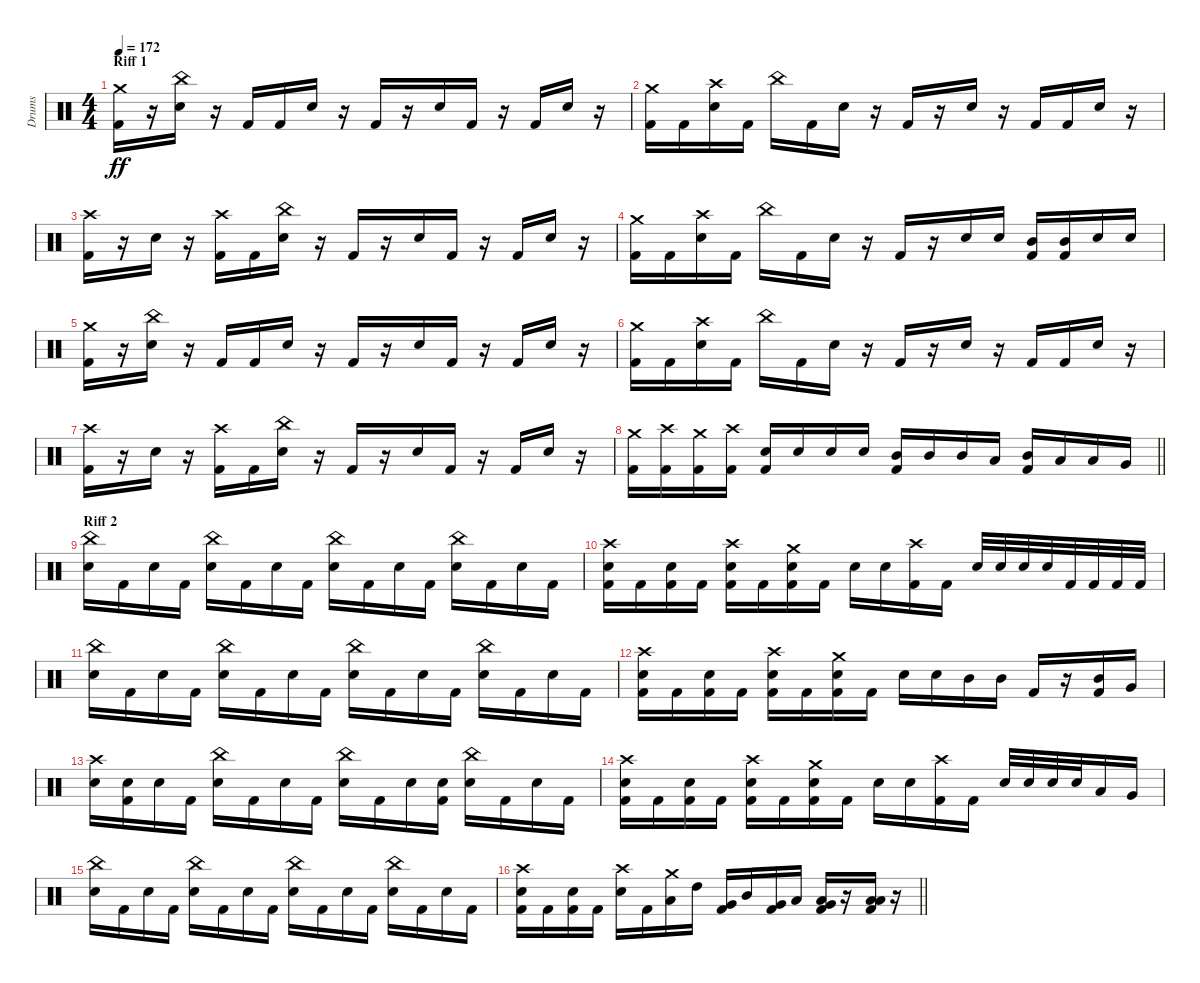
\track ("Drums" "Drums") {instrument percussion}
\staff {score}
\articulation defaults
\ts (4 4)
\section ("" "Riff 1")
\tempo 172
\clef neutral
\ks c
("Crash medium (hit)" "Kick (hit) 2").16{dy ff} r.16 ("China (hit)" "Snare (hit) 2").16 r.16 "Kick (hit) 2".16 "Kick (hit) 2".16 "Snare (hit) 2".16 r.16 "Kick (hit) 2".16 r.16 "Snare (hit) 2".16 "Kick (hit) 2".16 r.16 "Kick (hit) 2".16 "Snare (hit) 2".16 r.16 |
("Crash medium (hit)" "Kick (hit) 2").16 "Kick (hit) 2".16 ("Crash high (hit)" "Snare (hit) 2").16 "Kick (hit) 2".16 "China (hit)".16 "Kick (hit) 2".16 "Snare (hit) 2".16 r.16 "Kick (hit) 2".16 r.16 "Snare (hit) 2".16 r.16 "Kick (hit) 2".16 "Kick (hit) 2".16 "Snare (hit) 2".16 r.16 |
("Crash high (hit)" "Kick (hit) 2").16 r.16 "Snare (hit) 2".16 r.16 ("Crash high (hit)" "Kick (hit) 2").16 "Kick (hit) 2".16 ("China (hit)" "Snare (hit) 2").16 r.16 "Kick (hit) 2".16 r.16 "Snare (hit) 2".16 "Kick (hit) 2".16 r.16 "Kick (hit) 2".16 "Snare (hit) 2".16 r.16 |
("Crash medium (hit)" "Kick (hit) 2").16 "Kick (hit) 2".16 ("Crash high (hit)" "Snare (hit) 2").16 "Kick (hit) 2".16 "China (hit)".16 "Kick (hit) 2".16 "Snare (hit) 2".16 r.16 "Kick (hit) 2".16 r.16 "Snare (hit) 2".16 "Snare (hit) 2".16 ("Kick (hit) 2" "Mid Tom (hit)").16 ("Kick (hit) 2" "Mid Tom (hit)").16 "Snare (hit) 2".16 "Snare (hit) 2".16 |
("Crash medium (hit)" "Kick (hit) 2").16 r.16 ("China (hit)" "Snare (hit) 2").16 r.16 "Kick (hit) 2".16 "Kick (hit) 2".16 "Snare (hit) 2".16 r.16 "Kick (hit) 2".16 r.16 "Snare (hit) 2".16 "Kick (hit) 2".16 r.16 "Kick (hit) 2".16 "Snare (hit) 2".16 r.16 |
("Crash medium (hit)" "Kick (hit) 2").16 "Kick (hit) 2".16 ("Crash high (hit)" "Snare (hit) 2").16 "Kick (hit) 2".16 "China (hit)".16 "Kick (hit) 2".16 "Snare (hit) 2".16 r.16 "Kick (hit) 2".16 r.16 "Snare (hit) 2".16 r.16 "Kick (hit) 2".16 "Kick (hit) 2".16 "Snare (hit) 2".16 r.16 |
("Crash high (hit)" "Kick (hit) 2").16 r.16 "Snare (hit) 2".16 r.16 ("Crash high (hit)" "Kick (hit) 2").16 "Kick (hit) 2".16 ("China (hit)" "Snare (hit) 2").16 r.16 "Kick (hit) 2".16 r.16 "Snare (hit) 2".16 "Kick (hit) 2".16 r.16 "Kick (hit) 2".16 "Snare (hit) 2".16 r.16 |
\barLineRight lightlight
("Crash medium (hit)" "Kick (hit) 2").16 ("Crash high (hit)" "Kick (hit) 2").16 ("Crash medium (hit)" "Kick (hit) 2").16 ("Crash high (hit)" "Kick (hit) 2").16 ("Kick (hit) 2" "Snare (hit) 2").16 "Snare (hit) 2".16 "Snare (hit) 2".16 "Snare (hit) 2".16 ("Kick (hit) 2" "Mid Tom (hit)").16 "Mid Tom (hit)".16 "Mid Tom (hit)".16 "Low Tom (hit)".16 ("Kick (hit) 2" "Mid Tom (hit)").16 "Low Tom (hit)".16 "Low Tom (hit)".16 "Very Low Tom (hit)".16 |
\section ("" "Riff 2")
("China (hit)" "Snare (hit) 2").16 "Kick (hit) 2".16 "Snare (hit) 2".16 "Kick (hit) 2".16 ("China (hit)" "Snare (hit) 2").16 "Kick (hit) 2".16 "Snare (hit) 2".16 "Kick (hit) 2".16 ("China (hit)" "Snare (hit) 2").16 "Kick (hit) 2".16 "Snare (hit) 2".16 "Kick (hit) 2".16 ("China (hit)" "Snare (hit) 2").16 "Kick (hit) 2".16 "Snare (hit) 2".16 "Kick (hit) 2".16 |
("Crash high (hit)" "Kick (hit) 2" "Snare (hit) 2").16 "Kick (hit) 2".16 ("Kick (hit) 2" "Snare (hit) 2").16 "Kick (hit) 2".16 ("Crash high (hit)" "Kick (hit) 2" "Snare (hit) 2").16 "Kick (hit) 2".16 ("Crash medium (hit)" "Kick (hit) 2" "Snare (hit) 2").16 "Kick (hit) 2".16 "Snare (hit) 2".16 "Snare (hit) 2".16 ("Crash high (hit)" "Kick (hit) 2").16 "Kick (hit) 2".16 "Snare (hit) 2".32 "Snare (hit) 2".32 "Snare (hit) 2".32 "Snare (hit) 2".32 "Kick (hit) 2".32 "Kick (hit) 2".32 "Kick (hit) 2".32 "Kick (hit) 2".32 |
("China (hit)" "Snare (hit) 2").16 "Kick (hit) 2".16 "Snare (hit) 2".16 "Kick (hit) 2".16 ("China (hit)" "Snare (hit) 2").16 "Kick (hit) 2".16 "Snare (hit) 2".16 "Kick (hit) 2".16 ("China (hit)" "Snare (hit) 2").16 "Kick (hit) 2".16 "Snare (hit) 2".16 "Kick (hit) 2".16 ("China (hit)" "Snare (hit) 2").16 "Kick (hit) 2".16 "Snare (hit) 2".16 "Kick (hit) 2".16 |
("Crash high (hit)" "Kick (hit) 2" "Snare (hit) 2").16 "Kick (hit) 2".16 ("Kick (hit) 2" "Snare (hit) 2").16 "Kick (hit) 2".16 ("Crash high (hit)" "Kick (hit) 2" "Snare (hit) 2").16 "Kick (hit) 2".16 ("Crash medium (hit)" "Kick (hit) 2" "Snare (hit) 2").16 "Kick (hit) 2".16 "Snare (hit) 2".16 "Snare (hit) 2".16 "Mid Tom (hit)".16 "Mid Tom (hit)".16 "Kick (hit) 2".16 r.16 ("Kick (hit) 2" "Mid Tom (hit)").16 "Very Low Tom (hit)".16 |
("Crash high (hit)" "Snare (hit) 2").16 ("Kick (hit) 2" "Snare (hit) 2").16 "Snare (hit) 2".16 "Kick (hit) 2".16 ("China (hit)" "Snare (hit) 2").16 "Kick (hit) 2".16 "Snare (hit) 2".16 "Kick (hit) 2".16 ("China (hit)" "Snare (hit) 2").16 "Kick (hit) 2".16 "Snare (hit) 2".16 ("Kick (hit) 2" "Snare (hit) 2").16 ("China (hit)" "Snare (hit) 2").16 "Kick (hit) 2".16 "Snare (hit) 2".16 "Kick (hit) 2".16 |
("Crash high (hit)" "Kick (hit) 2" "Snare (hit) 2").16 "Kick (hit) 2".16 ("Kick (hit) 2" "Snare (hit) 2").16 "Kick (hit) 2".16 ("Crash high (hit)" "Kick (hit) 2" "Snare (hit) 2").16 "Kick (hit) 2".16 ("Crash medium (hit)" "Kick (hit) 2" "Snare (hit) 2").16 "Kick (hit) 2".16 "Snare (hit) 2".16 "Snare (hit) 2".16 ("Crash high (hit)" "Kick (hit) 2").16 "Kick (hit) 2".16 "Snare (hit) 2".32 "Snare (hit) 2".32 "Snare (hit) 2".32 "Snare (hit) 2".32 "Low Tom (hit)".16 "Very Low Tom (hit)".16 |
("China (hit)" "Snare (hit) 2").16 "Kick (hit) 2".16 "Snare (hit) 2".16 "Kick (hit) 2".16 ("China (hit)" "Snare (hit) 2").16 "Kick (hit) 2".16 "Snare (hit) 2".16 "Kick (hit) 2".16 ("China (hit)" "Snare (hit) 2").16 "Kick (hit) 2".16 "Snare (hit) 2".16 "Kick (hit) 2".16 ("China (hit)" "Snare (hit) 2").16 "Kick (hit) 2".16 "Snare (hit) 2".16 "Kick (hit) 2".16 |
\barLineRight lightlight
("Crash high (hit)" "Kick (hit) 2" "Snare (hit) 2").16 "Kick (hit) 2".16 ("Kick (hit) 2" "Snare (hit) 2").16 "Kick (hit) 2".16 ("Crash high (hit)" "Snare (hit) 2").16 "Kick (hit) 2".16 ("Crash medium (hit)" "Low Tom (hit)").16 "High Tom (hit)".16 ("Kick (hit) 2" "Very Low Tom (hit)").16 "Mid Tom (hit)".16 ("Kick (hit) 2" "Very Low Tom (hit)").16 "Low Tom (hit)".16 ("Kick (hit) 2" "Low Floor Tom (hit)" "Very Low Tom (hit)").16 r.16 ("Kick (hit) 2" "Low Floor Tom (hit)" "Low Tom (hit)").16 r.16
